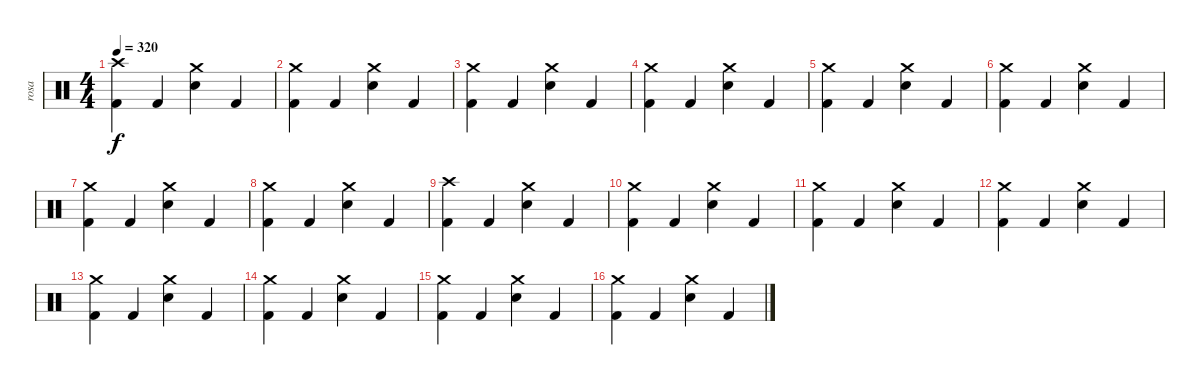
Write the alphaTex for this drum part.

\track ("rosa" "rosa") {instrument percussion}
\staff {score}
\articulation defaults
\ts (4 4)
\tempo 320
\clef neutral
\ks c
("Crash high (hit)" "Kick (hit) 2").4{dy f} "Kick (hit) 2".4 ("Crash medium (hit)" "Electric Snare (hit)").4 "Kick (hit) 2".4 |
("Crash medium (hit)" "Kick (hit) 2").4 "Kick (hit) 2".4 ("Crash medium (hit)" "Electric Snare (hit)").4 "Kick (hit) 2".4 |
("Crash medium (hit)" "Kick (hit) 2").4 "Kick (hit) 2".4 ("Crash medium (hit)" "Electric Snare (hit)").4 "Kick (hit) 2".4 |
("Crash medium (hit)" "Kick (hit) 2").4 "Kick (hit) 2".4 ("Crash medium (hit)" "Electric Snare (hit)").4 "Kick (hit) 2".4 |
("Crash medium (hit)" "Kick (hit) 2").4 "Kick (hit) 2".4 ("Crash medium (hit)" "Electric Snare (hit)").4 "Kick (hit) 2".4 |
("Crash medium (hit)" "Kick (hit) 2").4 "Kick (hit) 2".4 ("Crash medium (hit)" "Electric Snare (hit)").4 "Kick (hit) 2".4 |
("Crash medium (hit)" "Kick (hit) 2").4 "Kick (hit) 2".4 ("Crash medium (hit)" "Electric Snare (hit)").4 "Kick (hit) 2".4 |
("Crash medium (hit)" "Kick (hit) 2").4 "Kick (hit) 2".4 ("Crash medium (hit)" "Electric Snare (hit)").4 "Kick (hit) 2".4 |
("Crash high (hit)" "Kick (hit) 2").4 "Kick (hit) 2".4 ("Crash medium (hit)" "Electric Snare (hit)").4 "Kick (hit) 2".4 |
("Crash medium (hit)" "Kick (hit) 2").4 "Kick (hit) 2".4 ("Crash medium (hit)" "Electric Snare (hit)").4 "Kick (hit) 2".4 |
("Crash medium (hit)" "Kick (hit) 2").4 "Kick (hit) 2".4 ("Crash medium (hit)" "Electric Snare (hit)").4 "Kick (hit) 2".4 |
("Crash medium (hit)" "Kick (hit) 2").4 "Kick (hit) 2".4 ("Crash medium (hit)" "Electric Snare (hit)").4 "Kick (hit) 2".4 |
("Crash medium (hit)" "Kick (hit) 2").4 "Kick (hit) 2".4 ("Crash medium (hit)" "Electric Snare (hit)").4 "Kick (hit) 2".4 |
("Crash medium (hit)" "Kick (hit) 2").4 "Kick (hit) 2".4 ("Crash medium (hit)" "Electric Snare (hit)").4 "Kick (hit) 2".4 |
("Crash medium (hit)" "Kick (hit) 2").4 "Kick (hit) 2".4 ("Crash medium (hit)" "Electric Snare (hit)").4 "Kick (hit) 2".4 |
("Crash medium (hit)" "Kick (hit) 2").4 "Kick (hit) 2".4 ("Crash medium (hit)" "Electric Snare (hit)").4 "Kick (hit) 2".4
